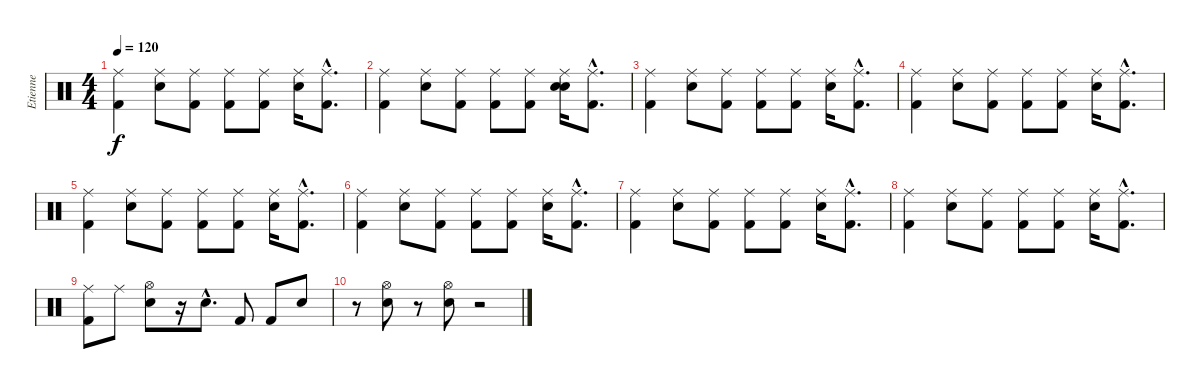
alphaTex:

\track ("Etienne" "Etienne") {instrument percussion}
\staff {score}
\articulation defaults
\ts (4 4)
\tempo 120
\clef neutral
\ks c
("Ride (middle)" "Kick (hit) 2").4{dy f} ("Ride (middle)" "Snare (hit) 2").8 ("Ride (middle)" "Kick (hit) 2").8 ("Ride (middle)" "Kick (hit) 2").8 ("Ride (middle)" "Kick (hit) 2").8 ("Ride (middle)" "Snare (hit) 2").16 ("Ride (middle)"{hac} "Kick (hit) 2"{hac}).8{d} |
("Ride (middle)" "Kick (hit) 2").4 ("Ride (middle)" "Snare (hit) 2").8 ("Ride (middle)" "Kick (hit) 2").8 ("Ride (middle)" "Kick (hit) 2").8 ("Ride (middle)" "Kick (hit) 2").8 ("Ride (middle)" "Snare (hit) 2" "Snare (hit) 2").16 ("Ride (middle)"{hac} "Kick (hit) 2"{hac}).8{d} |
("Ride (middle)" "Kick (hit) 2").4 ("Ride (middle)" "Snare (hit) 2").8 ("Ride (middle)" "Kick (hit) 2").8 ("Ride (middle)" "Kick (hit) 2").8 ("Ride (middle)" "Kick (hit) 2").8 ("Ride (middle)" "Snare (hit) 2").16 ("Ride (middle)"{hac} "Kick (hit) 2"{hac}).8{d} |
("Ride (middle)" "Kick (hit) 2").4 ("Ride (middle)" "Snare (hit) 2").8 ("Ride (middle)" "Kick (hit) 2").8 ("Ride (middle)" "Kick (hit) 2").8 ("Ride (middle)" "Kick (hit) 2").8 ("Ride (middle)" "Snare (hit) 2").16 ("Ride (middle)"{hac} "Kick (hit) 2"{hac}).8{d} |
("Ride (middle)" "Kick (hit) 2").4 ("Ride (middle)" "Snare (hit) 2").8 ("Ride (middle)" "Kick (hit) 2").8 ("Ride (middle)" "Kick (hit) 2").8 ("Ride (middle)" "Kick (hit) 2").8 ("Ride (middle)" "Snare (hit) 2").16 ("Ride (middle)"{hac} "Kick (hit) 2"{hac}).8{d} |
("Ride (middle)" "Kick (hit) 2").4 ("Ride (middle)" "Snare (hit) 2").8 ("Ride (middle)" "Kick (hit) 2").8 ("Ride (middle)" "Kick (hit) 2").8 ("Ride (middle)" "Kick (hit) 2").8 ("Ride (middle)" "Snare (hit) 2").16 ("Ride (middle)"{hac} "Kick (hit) 2"{hac}).8{d} |
("Ride (middle)" "Kick (hit) 2").4 ("Ride (middle)" "Snare (hit) 2").8 ("Ride (middle)" "Kick (hit) 2").8 ("Ride (middle)" "Kick (hit) 2").8 ("Ride (middle)" "Kick (hit) 2").8 ("Ride (middle)" "Snare (hit) 2").16 ("Ride (middle)"{hac} "Kick (hit) 2"{hac}).8{d} |
("Ride (middle)" "Kick (hit) 2").4 ("Ride (middle)" "Snare (hit) 2").8 ("Ride (middle)" "Kick (hit) 2").8 ("Ride (middle)" "Kick (hit) 2").8 ("Ride (middle)" "Kick (hit) 2").8 ("Ride (middle)" "Snare (hit) 2").16 ("Ride (middle)"{hac} "Kick (hit) 2"{hac}).8{d} |
("Ride (middle)" "Kick (hit) 2").8 "Ride (middle)".8 ("Hi-Hat (open)" "Snare (hit) 2").8 r.16 "Snare (hit) 2"{hac}.8{d} "Kick (hit) 2".8 "Kick (hit) 2".8 "Snare (hit) 2".8 |
r.8 ("Hi-Hat (open)" "Snare (hit) 2").8 r.8 ("Hi-Hat (open)" "Snare (hit) 2").8 r.2
